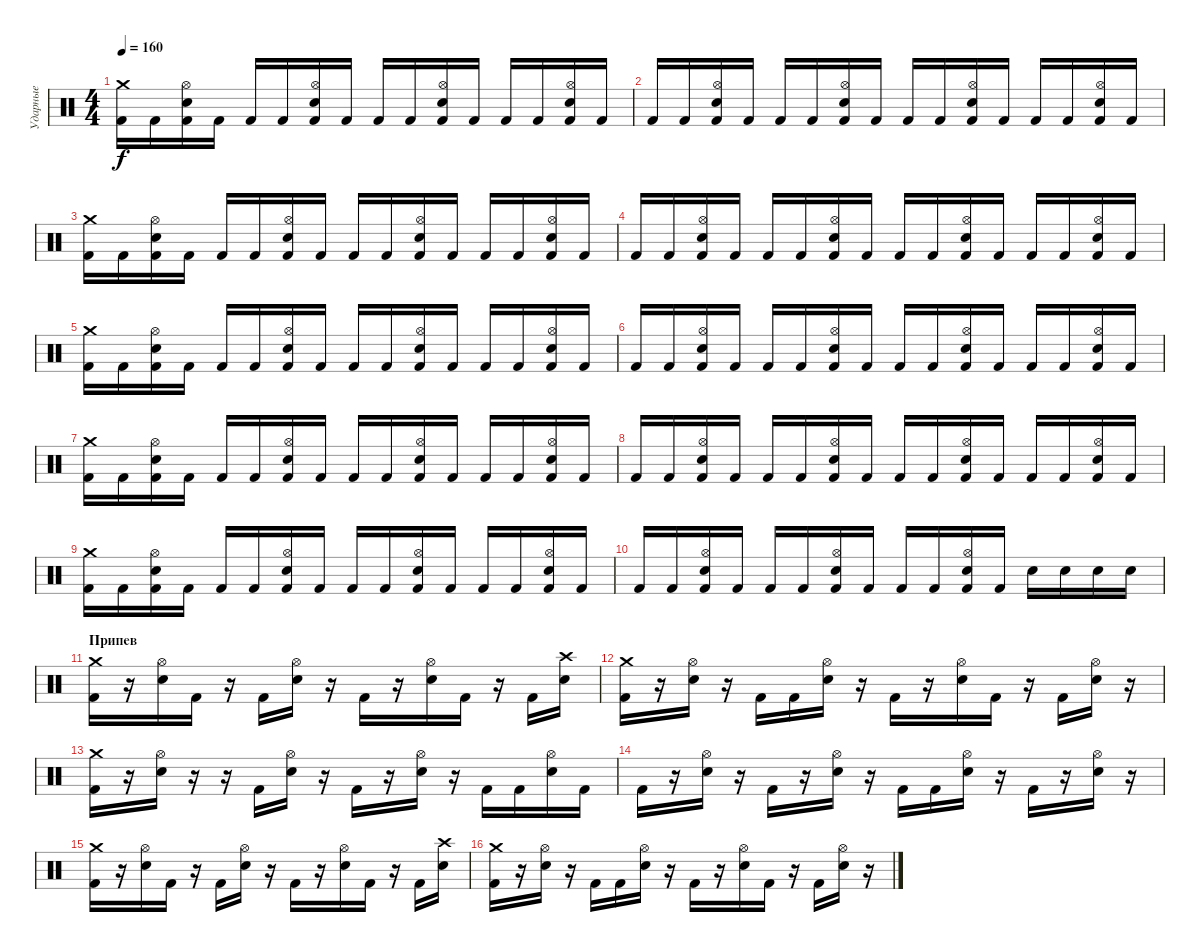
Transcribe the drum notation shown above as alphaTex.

\track ("Ударные" "Ударные") {instrument percussion}
\staff {score}
\articulation defaults
\ts (4 4)
\tempo 160
\clef neutral
\ks c
("Crash medium (hit)" "Kick (hit) 2").16{dy f} "Kick (hit) 2".16 ("Hi-Hat (open)" "Electric Snare (hit)" "Kick (hit) 2").16 "Kick (hit) 2".16 "Kick (hit) 2".16 "Kick (hit) 2".16 ("Hi-Hat (open)" "Electric Snare (hit)" "Kick (hit) 2").16 "Kick (hit) 2".16 "Kick (hit) 2".16 "Kick (hit) 2".16 ("Hi-Hat (open)" "Electric Snare (hit)" "Kick (hit) 2").16 "Kick (hit) 2".16 "Kick (hit) 2".16 "Kick (hit) 2".16 ("Hi-Hat (open)" "Electric Snare (hit)" "Kick (hit) 2").16 "Kick (hit) 2".16 |
"Kick (hit) 2".16 "Kick (hit) 2".16 ("Hi-Hat (open)" "Electric Snare (hit)" "Kick (hit) 2").16 "Kick (hit) 2".16 "Kick (hit) 2".16 "Kick (hit) 2".16 ("Hi-Hat (open)" "Electric Snare (hit)" "Kick (hit) 2").16 "Kick (hit) 2".16 "Kick (hit) 2".16 "Kick (hit) 2".16 ("Hi-Hat (open)" "Electric Snare (hit)" "Kick (hit) 2").16 "Kick (hit) 2".16 "Kick (hit) 2".16 "Kick (hit) 2".16 ("Hi-Hat (open)" "Electric Snare (hit)" "Kick (hit) 2").16 "Kick (hit) 2".16 |
("Crash medium (hit)" "Kick (hit) 2").16 "Kick (hit) 2".16 ("Hi-Hat (open)" "Electric Snare (hit)" "Kick (hit) 2").16 "Kick (hit) 2".16 "Kick (hit) 2".16 "Kick (hit) 2".16 ("Hi-Hat (open)" "Electric Snare (hit)" "Kick (hit) 2").16 "Kick (hit) 2".16 "Kick (hit) 2".16 "Kick (hit) 2".16 ("Hi-Hat (open)" "Electric Snare (hit)" "Kick (hit) 2").16 "Kick (hit) 2".16 "Kick (hit) 2".16 "Kick (hit) 2".16 ("Hi-Hat (open)" "Electric Snare (hit)" "Kick (hit) 2").16 "Kick (hit) 2".16 |
"Kick (hit) 2".16 "Kick (hit) 2".16 ("Hi-Hat (open)" "Electric Snare (hit)" "Kick (hit) 2").16 "Kick (hit) 2".16 "Kick (hit) 2".16 "Kick (hit) 2".16 ("Hi-Hat (open)" "Electric Snare (hit)" "Kick (hit) 2").16 "Kick (hit) 2".16 "Kick (hit) 2".16 "Kick (hit) 2".16 ("Hi-Hat (open)" "Electric Snare (hit)" "Kick (hit) 2").16 "Kick (hit) 2".16 "Kick (hit) 2".16 "Kick (hit) 2".16 ("Hi-Hat (open)" "Electric Snare (hit)" "Kick (hit) 2").16 "Kick (hit) 2".16 |
("Crash medium (hit)" "Kick (hit) 2").16 "Kick (hit) 2".16 ("Hi-Hat (open)" "Electric Snare (hit)" "Kick (hit) 2").16 "Kick (hit) 2".16 "Kick (hit) 2".16 "Kick (hit) 2".16 ("Hi-Hat (open)" "Electric Snare (hit)" "Kick (hit) 2").16 "Kick (hit) 2".16 "Kick (hit) 2".16 "Kick (hit) 2".16 ("Hi-Hat (open)" "Electric Snare (hit)" "Kick (hit) 2").16 "Kick (hit) 2".16 "Kick (hit) 2".16 "Kick (hit) 2".16 ("Hi-Hat (open)" "Electric Snare (hit)" "Kick (hit) 2").16 "Kick (hit) 2".16 |
"Kick (hit) 2".16 "Kick (hit) 2".16 ("Hi-Hat (open)" "Electric Snare (hit)" "Kick (hit) 2").16 "Kick (hit) 2".16 "Kick (hit) 2".16 "Kick (hit) 2".16 ("Hi-Hat (open)" "Electric Snare (hit)" "Kick (hit) 2").16 "Kick (hit) 2".16 "Kick (hit) 2".16 "Kick (hit) 2".16 ("Hi-Hat (open)" "Electric Snare (hit)" "Kick (hit) 2").16 "Kick (hit) 2".16 "Kick (hit) 2".16 "Kick (hit) 2".16 ("Hi-Hat (open)" "Electric Snare (hit)" "Kick (hit) 2").16 "Kick (hit) 2".16 |
("Crash medium (hit)" "Kick (hit) 2").16 "Kick (hit) 2".16 ("Hi-Hat (open)" "Electric Snare (hit)" "Kick (hit) 2").16 "Kick (hit) 2".16 "Kick (hit) 2".16 "Kick (hit) 2".16 ("Hi-Hat (open)" "Electric Snare (hit)" "Kick (hit) 2").16 "Kick (hit) 2".16 "Kick (hit) 2".16 "Kick (hit) 2".16 ("Hi-Hat (open)" "Electric Snare (hit)" "Kick (hit) 2").16 "Kick (hit) 2".16 "Kick (hit) 2".16 "Kick (hit) 2".16 ("Hi-Hat (open)" "Electric Snare (hit)" "Kick (hit) 2").16 "Kick (hit) 2".16 |
"Kick (hit) 2".16 "Kick (hit) 2".16 ("Hi-Hat (open)" "Electric Snare (hit)" "Kick (hit) 2").16 "Kick (hit) 2".16 "Kick (hit) 2".16 "Kick (hit) 2".16 ("Hi-Hat (open)" "Electric Snare (hit)" "Kick (hit) 2").16 "Kick (hit) 2".16 "Kick (hit) 2".16 "Kick (hit) 2".16 ("Hi-Hat (open)" "Electric Snare (hit)" "Kick (hit) 2").16 "Kick (hit) 2".16 "Kick (hit) 2".16 "Kick (hit) 2".16 ("Hi-Hat (open)" "Electric Snare (hit)" "Kick (hit) 2").16 "Kick (hit) 2".16 |
("Crash medium (hit)" "Kick (hit) 2").16 "Kick (hit) 2".16 ("Hi-Hat (open)" "Electric Snare (hit)" "Kick (hit) 2").16 "Kick (hit) 2".16 "Kick (hit) 2".16 "Kick (hit) 2".16 ("Hi-Hat (open)" "Electric Snare (hit)" "Kick (hit) 2").16 "Kick (hit) 2".16 "Kick (hit) 2".16 "Kick (hit) 2".16 ("Hi-Hat (open)" "Electric Snare (hit)" "Kick (hit) 2").16 "Kick (hit) 2".16 "Kick (hit) 2".16 "Kick (hit) 2".16 ("Hi-Hat (open)" "Electric Snare (hit)" "Kick (hit) 2").16 "Kick (hit) 2".16 |
"Kick (hit) 2".16 "Kick (hit) 2".16 ("Hi-Hat (open)" "Electric Snare (hit)" "Kick (hit) 2").16 "Kick (hit) 2".16 "Kick (hit) 2".16 "Kick (hit) 2".16 ("Hi-Hat (open)" "Electric Snare (hit)" "Kick (hit) 2").16 "Kick (hit) 2".16 "Kick (hit) 2".16 "Kick (hit) 2".16 ("Hi-Hat (open)" "Electric Snare (hit)" "Kick (hit) 2").16 "Kick (hit) 2".16 "Electric Snare (hit)".16 "Electric Snare (hit)".16 "Electric Snare (hit)".16 "Electric Snare (hit)".16 |
\section ("" "Припев")
("Crash medium (hit)" "Kick (hit) 2").16 r.16 ("Hi-Hat (open)" "Electric Snare (hit)").16 "Kick (hit) 2".16 r.16 "Kick (hit) 2".16 ("Hi-Hat (open)" "Electric Snare (hit)").16 r.16 "Kick (hit) 2".16 r.16 ("Hi-Hat (open)" "Electric Snare (hit)").16 "Kick (hit) 2".16 r.16 "Kick (hit) 2".16 ("Crash high (hit)" "Electric Snare (hit)").16 |
("Crash medium (hit)" "Kick (hit) 2").16 r.16 ("Hi-Hat (open)" "Electric Snare (hit)").16 r.16 "Kick (hit) 2".16 "Kick (hit) 2".16 ("Hi-Hat (open)" "Electric Snare (hit)").16 r.16 "Kick (hit) 2".16 r.16 ("Hi-Hat (open)" "Electric Snare (hit)").16 "Kick (hit) 2".16 r.16 "Kick (hit) 2".16 ("Hi-Hat (open)" "Electric Snare (hit)").16 r.16 |
("Crash medium (hit)" "Kick (hit) 2").16 r.16 ("Hi-Hat (open)" "Electric Snare (hit)").16 r.16 r.16 "Kick (hit) 2".16 ("Hi-Hat (open)" "Electric Snare (hit)").16 r.16 "Kick (hit) 2".16 r.16 ("Hi-Hat (open)" "Electric Snare (hit)").16 r.16 "Kick (hit) 2".16 "Kick (hit) 2".16 ("Hi-Hat (open)" "Electric Snare (hit)").16 "Kick (hit) 2".16 |
"Kick (hit) 2".16 r.16 ("Hi-Hat (open)" "Electric Snare (hit)").16 r.16 "Kick (hit) 2".16 r.16 ("Hi-Hat (open)" "Electric Snare (hit)").16 r.16 "Kick (hit) 2".16 "Kick (hit) 2".16 ("Hi-Hat (open)" "Electric Snare (hit)").16 r.16 "Kick (hit) 2".16 r.16 ("Hi-Hat (open)" "Electric Snare (hit)").16 r.16 |
("Crash medium (hit)" "Kick (hit) 2").16 r.16 ("Hi-Hat (open)" "Electric Snare (hit)").16 "Kick (hit) 2".16 r.16 "Kick (hit) 2".16 ("Hi-Hat (open)" "Electric Snare (hit)").16 r.16 "Kick (hit) 2".16 r.16 ("Hi-Hat (open)" "Electric Snare (hit)").16 "Kick (hit) 2".16 r.16 "Kick (hit) 2".16 ("Crash high (hit)" "Electric Snare (hit)").16 |
("Crash medium (hit)" "Kick (hit) 2").16 r.16 ("Hi-Hat (open)" "Electric Snare (hit)").16 r.16 "Kick (hit) 2".16 "Kick (hit) 2".16 ("Hi-Hat (open)" "Electric Snare (hit)").16 r.16 "Kick (hit) 2".16 r.16 ("Hi-Hat (open)" "Electric Snare (hit)").16 "Kick (hit) 2".16 r.16 "Kick (hit) 2".16 ("Hi-Hat (open)" "Electric Snare (hit)").16 r.16
